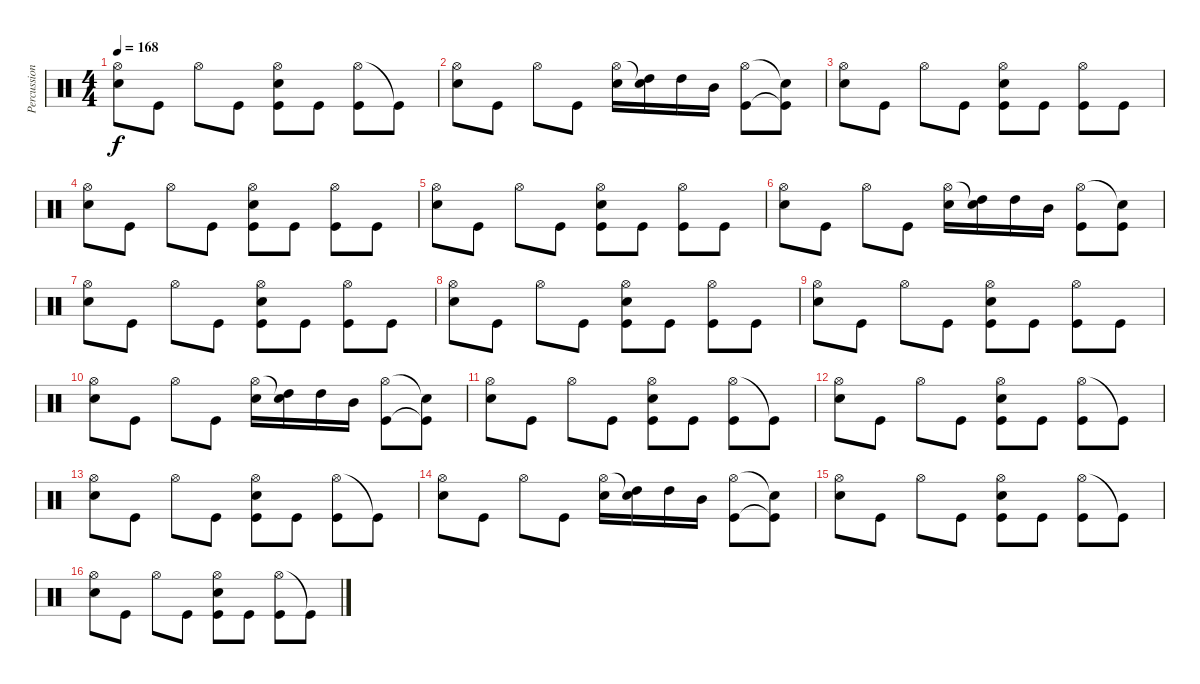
\track ("Percussions" "Percussion") {instrument percussion}
\staff {score}
\articulation defaults
\ts (4 4)
\tempo 168
\clef neutral
\ks c
("Hi-Hat (open)" "Snare (hit) 2").8{dy f} "Kick (hit)".8 "Hi-Hat (open)".8 "Kick (hit)".8 ("Hi-Hat (open)" "Kick (hit)" "Snare (hit) 2").8 "Kick (hit)".8 ("Hi-Hat (open)" "Kick (hit)").8 "Kick (hit)"{t}.8 |
("Hi-Hat (open)" "Snare (hit) 2").8 "Kick (hit)".8 "Hi-Hat (open)".8 "Kick (hit)".8 ("Hi-Hat (open)" "Snare (hit) 2").16 ("Snare (hit)"{t} "High Tom (hit)").16 "High Tom (hit)".16 "Mid Tom (hit)".16 ("Hi-Hat (open)" "Kick (hit)").8 ("Snare (hit)"{t} "Kick (hit)"{t}).8 |
("Hi-Hat (open)" "Snare (hit) 2").8 "Kick (hit)".8 "Hi-Hat (open)".8 "Kick (hit)".8 ("Hi-Hat (open)" "Kick (hit)" "Snare (hit) 2").8 "Kick (hit)".8 ("Hi-Hat (open)" "Kick (hit)").8 "Kick (hit)".8 |
("Hi-Hat (open)" "Snare (hit) 2").8 "Kick (hit)".8 "Hi-Hat (open)".8 "Kick (hit)".8 ("Hi-Hat (open)" "Kick (hit)" "Snare (hit) 2").8 "Kick (hit)".8 ("Hi-Hat (open)" "Kick (hit)").8 "Kick (hit)".8 |
("Hi-Hat (open)" "Snare (hit) 2").8 "Kick (hit)".8 "Hi-Hat (open)".8 "Kick (hit)".8 ("Hi-Hat (open)" "Kick (hit)" "Snare (hit) 2").8 "Kick (hit)".8 ("Hi-Hat (open)" "Kick (hit)").8 "Kick (hit)".8 |
("Hi-Hat (open)" "Snare (hit) 2").8 "Kick (hit)".8 "Hi-Hat (open)".8 "Kick (hit)".8 ("Hi-Hat (open)" "Snare (hit) 2").16 ("Snare (hit)"{t} "High Tom (hit)").16 "High Tom (hit)".16 "Mid Tom (hit)".16 ("Hi-Hat (open)" "Kick (hit)").8 ("Snare (hit)"{t} "Kick (hit)").8 |
("Hi-Hat (open)" "Snare (hit) 2").8 "Kick (hit)".8 "Hi-Hat (open)".8 "Kick (hit)".8 ("Hi-Hat (open)" "Kick (hit)" "Snare (hit) 2").8 "Kick (hit)".8 ("Hi-Hat (open)" "Kick (hit)").8 "Kick (hit)".8 |
("Hi-Hat (open)" "Snare (hit) 2").8 "Kick (hit)".8 "Hi-Hat (open)".8 "Kick (hit)".8 ("Hi-Hat (open)" "Kick (hit)" "Snare (hit) 2").8 "Kick (hit)".8 ("Hi-Hat (open)" "Kick (hit)").8 "Kick (hit)".8 |
("Hi-Hat (open)" "Snare (hit) 2").8 "Kick (hit)".8 "Hi-Hat (open)".8 "Kick (hit)".8 ("Hi-Hat (open)" "Kick (hit)" "Snare (hit) 2").8 "Kick (hit)".8 ("Hi-Hat (open)" "Kick (hit)").8 "Kick (hit)".8 |
("Hi-Hat (open)" "Snare (hit) 2").8 "Kick (hit)".8 "Hi-Hat (open)".8 "Kick (hit)".8 ("Hi-Hat (open)" "Snare (hit) 2").16 ("Snare (hit)"{t} "High Tom (hit)").16 "High Tom (hit)".16 "Mid Tom (hit)".16 ("Hi-Hat (open)" "Kick (hit)").8 ("Snare (hit)"{t} "Kick (hit)"{t}).8 |
("Hi-Hat (open)" "Snare (hit) 2").8 "Kick (hit)".8 "Hi-Hat (open)".8 "Kick (hit)".8 ("Hi-Hat (open)" "Kick (hit)" "Snare (hit) 2").8 "Kick (hit)".8 ("Hi-Hat (open)" "Kick (hit)").8 "Kick (hit)"{t}.8 |
("Hi-Hat (open)" "Snare (hit) 2").8 "Kick (hit)".8 "Hi-Hat (open)".8 "Kick (hit)".8 ("Hi-Hat (open)" "Kick (hit)" "Snare (hit) 2").8 "Kick (hit)".8 ("Hi-Hat (open)" "Kick (hit)").8 "Kick (hit)"{t}.8 |
("Hi-Hat (open)" "Snare (hit) 2").8 "Kick (hit)".8 "Hi-Hat (open)".8 "Kick (hit)".8 ("Hi-Hat (open)" "Kick (hit)" "Snare (hit) 2").8 "Kick (hit)".8 ("Hi-Hat (open)" "Kick (hit)").8 "Kick (hit)"{t}.8 |
("Hi-Hat (open)" "Snare (hit) 2").8 "Kick (hit)".8 "Hi-Hat (open)".8 "Kick (hit)".8 ("Hi-Hat (open)" "Snare (hit) 2").16 ("Snare (hit)"{t} "High Tom (hit)").16 "High Tom (hit)".16 "Mid Tom (hit)".16 ("Hi-Hat (open)" "Kick (hit)").8 ("Snare (hit)"{t} "Kick (hit)"{t}).8 |
("Hi-Hat (open)" "Snare (hit) 2").8 "Kick (hit)".8 "Hi-Hat (open)".8 "Kick (hit)".8 ("Hi-Hat (open)" "Kick (hit)" "Snare (hit) 2").8 "Kick (hit)".8 ("Hi-Hat (open)" "Kick (hit)").8 "Kick (hit)"{t}.8 |
("Hi-Hat (open)" "Snare (hit) 2").8 "Kick (hit)".8 "Hi-Hat (open)".8 "Kick (hit)".8 ("Hi-Hat (open)" "Kick (hit)" "Snare (hit) 2").8 "Kick (hit)".8 ("Hi-Hat (open)" "Kick (hit)").8 "Kick (hit)"{t}.8
